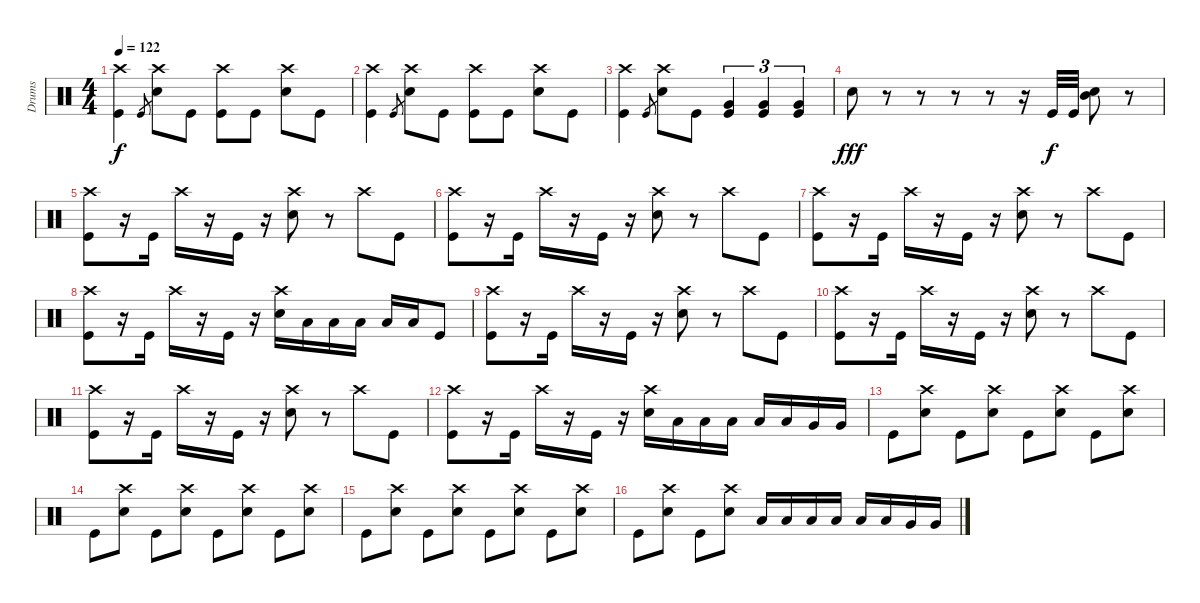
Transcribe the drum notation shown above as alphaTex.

\track ("Drums" "Drums") {instrument percussion}
\staff {score}
\articulation defaults
\ts (4 4)
\tempo 122
\clef neutral
\ks c
("Crash high (hit)" "Kick (hit)").4{dy f} "Kick (hit)".8{gr} ("Crash high (hit)" "Snare (hit) 2").8 "Kick (hit)".8 ("Crash high (hit)" "Kick (hit)").8 "Kick (hit)".8 ("Crash high (hit)" "Snare (hit) 2").8 "Kick (hit)".8 |
("Crash high (hit)" "Kick (hit)").4 "Kick (hit)".8{gr} ("Crash high (hit)" "Snare (hit) 2").8 "Kick (hit)".8 ("Crash high (hit)" "Kick (hit)").8 "Kick (hit)".8 ("Crash high (hit)" "Snare (hit) 2").8 "Kick (hit)".8 |
("Crash high (hit)" "Kick (hit)").4 "Kick (hit)".8{gr} ("Crash high (hit)" "Snare (hit) 2").8 "Kick (hit)".8 ("Very Low Tom (hit)" "Kick (hit)").4{tu (3 2)} ("Very Low Tom (hit)" "Kick (hit)").4{tu (3 2)} ("Very Low Tom (hit)" "Kick (hit)").4{tu (3 2)} |
"Snare (hit) 2".8{dy fff} r.8 r.8 r.8 r.8 r.16 "Kick (hit)".32{dy f} "Kick (hit)".32 ("Mid Tom (hit)" "Snare (hit) 2").8 r.8 |
("Crash high (hit)" "Kick (hit)").8 r.16 "Kick (hit)".16 "Crash high (hit)".16 r.16 "Kick (hit)".16 r.16 ("Crash high (hit)" "Snare (hit) 2").8 r.8 "Crash high (hit)".8 "Kick (hit)".8 |
("Crash high (hit)" "Kick (hit)").8 r.16 "Kick (hit)".16 "Crash high (hit)".16 r.16 "Kick (hit)".16 r.16 ("Crash high (hit)" "Snare (hit) 2").8 r.8 "Crash high (hit)".8 "Kick (hit)".8 |
("Crash high (hit)" "Kick (hit)").8 r.16 "Kick (hit)".16 "Crash high (hit)".16 r.16 "Kick (hit)".16 r.16 ("Crash high (hit)" "Snare (hit) 2").8 r.8 "Crash high (hit)".8 "Kick (hit)".8 |
("Crash high (hit)" "Kick (hit)").8 r.16 "Kick (hit)".16 "Crash high (hit)".16 r.16 "Kick (hit)".16 r.16 ("Crash high (hit)" "Snare (hit) 2").16 "Low Tom (hit)".16 "Low Tom (hit)".16 "Low Tom (hit)".16 "Low Floor Tom (hit)".16 "Low Floor Tom (hit)".16 "Kick (hit)".8 |
("Crash high (hit)" "Kick (hit)").8 r.16 "Kick (hit)".16 "Crash high (hit)".16 r.16 "Kick (hit)".16 r.16 ("Crash high (hit)" "Snare (hit) 2").8 r.8 "Crash high (hit)".8 "Kick (hit)".8 |
("Crash high (hit)" "Kick (hit)").8 r.16 "Kick (hit)".16 "Crash high (hit)".16 r.16 "Kick (hit)".16 r.16 ("Crash high (hit)" "Snare (hit) 2").8 r.8 "Crash high (hit)".8 "Kick (hit)".8 |
("Crash high (hit)" "Kick (hit)").8 r.16 "Kick (hit)".16 "Crash high (hit)".16 r.16 "Kick (hit)".16 r.16 ("Crash high (hit)" "Snare (hit) 2").8 r.8 "Crash high (hit)".8 "Kick (hit)".8 |
("Crash high (hit)" "Kick (hit)").8 r.16 "Kick (hit)".16 "Crash high (hit)".16 r.16 "Kick (hit)".16 r.16 ("Crash high (hit)" "Snare (hit) 2").16 "Low Tom (hit)".16 "Low Tom (hit)".16 "Low Tom (hit)".16 "Low Floor Tom (hit)".16 "Low Floor Tom (hit)".16 "Very Low Tom (hit)".16 "Very Low Tom (hit)".16 |
"Kick (hit)".8 ("Crash high (hit)" "Snare (hit) 2").8 "Kick (hit)".8 ("Crash high (hit)" "Snare (hit) 2").8 "Kick (hit)".8 ("Crash high (hit)" "Snare (hit) 2").8 "Kick (hit)".8 ("Crash high (hit)" "Snare (hit) 2").8 |
"Kick (hit)".8 ("Crash high (hit)" "Snare (hit) 2").8 "Kick (hit)".8 ("Crash high (hit)" "Snare (hit) 2").8 "Kick (hit)".8 ("Crash high (hit)" "Snare (hit) 2").8 "Kick (hit)".8 ("Crash high (hit)" "Snare (hit) 2").8 |
"Kick (hit)".8 ("Crash high (hit)" "Snare (hit) 2").8 "Kick (hit)".8 ("Crash high (hit)" "Snare (hit) 2").8 "Kick (hit)".8 ("Crash high (hit)" "Snare (hit) 2").8 "Kick (hit)".8 ("Crash high (hit)" "Snare (hit) 2").8 |
"Kick (hit)".8 ("Crash high (hit)" "Snare (hit) 2").8 "Kick (hit)".8 ("Crash high (hit)" "Snare (hit) 2").8 "Low Tom (hit)".16 "Low Tom (hit)".16 "Low Tom (hit)".16 "Low Tom (hit)".16 "Low Floor Tom (hit)".16 "Low Floor Tom (hit)".16 "Very Low Tom (hit)".16 "Very Low Tom (hit)".16
